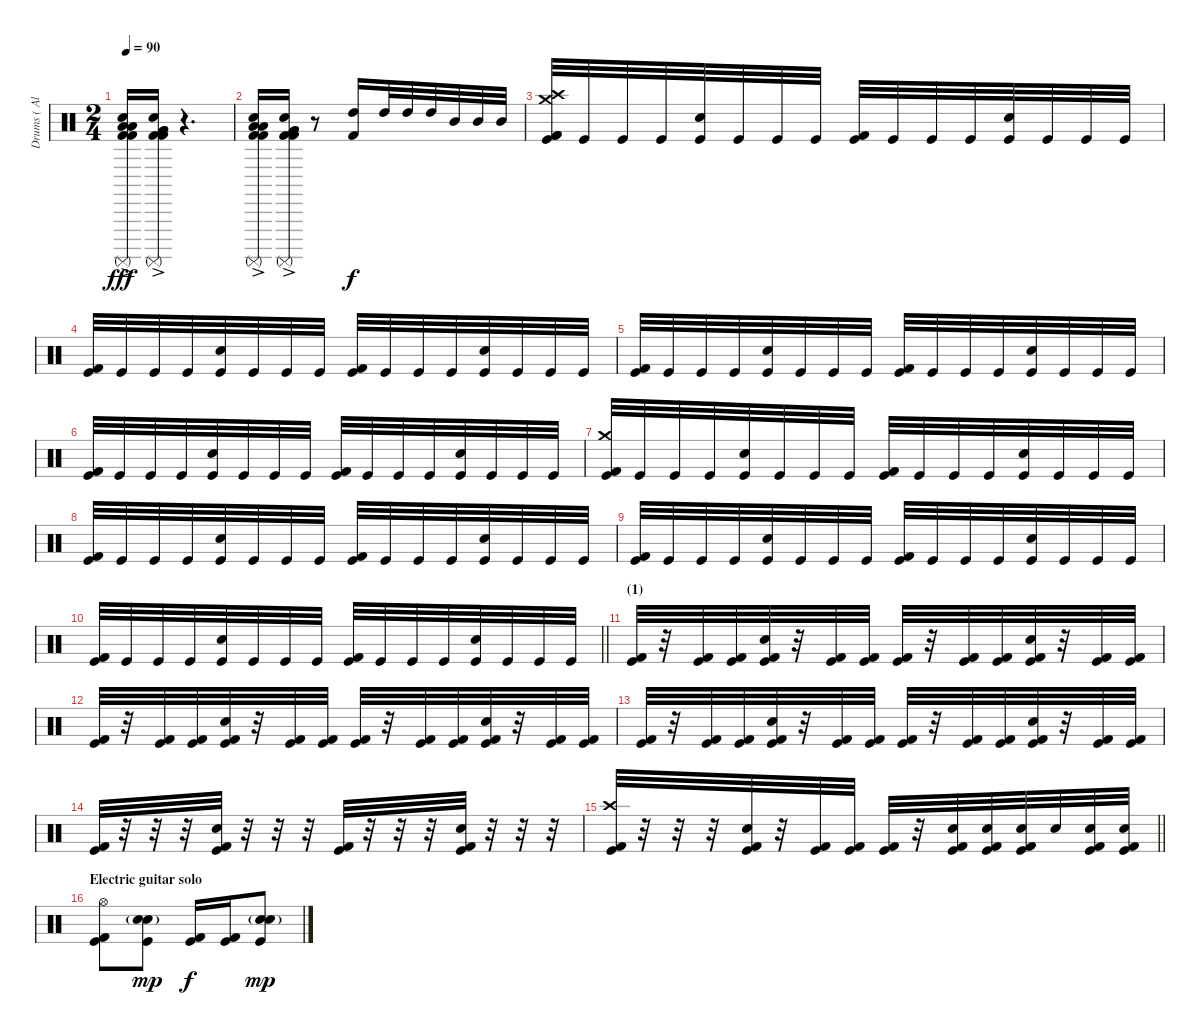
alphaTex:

\track ("Drums ( Alex Holzwarth)" "Drums ( Al") {instrument percussion}
\staff {score}
\articulation defaults
\ts (2 4)
\tempo 90
\clef neutral
\ks c
("Surdo (mute)"{ac} "Low Tom (hit)"{ac} "Low Tom (hit)"{ac} "Snare (hit) 2" "Kick (hit) 2"{ac} "Kick (hit) 2"{ac}).16{dy fff} ("Surdo (mute)"{ac} "Very Low Tom (hit)"{ac} "Very Low Tom (hit)"{ac} "Snare (hit) 2" "Kick (hit) 2"{ac} "Kick (hit) 2"{ac}).16 r.4{d} |
("Surdo (mute)"{ac} "Low Tom (hit)"{ac} "Low Tom (hit)"{ac} "Snare (hit) 2" "Kick (hit) 2"{ac} "Kick (hit) 2"{ac}).16 ("Surdo (mute)"{ac} "Very Low Tom (hit)"{ac} "Very Low Tom (hit)"{ac} "Snare (hit) 2" "Kick (hit) 2"{ac} "Kick (hit) 2"{ac}).16 r.8 ("High Tom (hit)" "Kick (hit) 2").16{dy f} "High Tom (hit)".32 "High Tom (hit)".32 "High Tom (hit)".32 "Mid Tom (hit)".32 "Mid Tom (hit)".32 "Mid Tom (hit)".32 |
("Crash high (hit)" "Crash medium (hit)" "Kick (hit) 2" "Kick (hit) 2" "Kick (hit)").32 "Kick (hit)".32 "Kick (hit)".32 "Kick (hit)".32 ("Snare (hit) 2" "Kick (hit)").32 "Kick (hit)".32 "Kick (hit)".32 "Kick (hit)".32 ("Kick (hit) 2" "Kick (hit)").32 "Kick (hit)".32 "Kick (hit)".32 "Kick (hit)".32 ("Snare (hit) 2" "Kick (hit)").32 "Kick (hit)".32 "Kick (hit)".32 "Kick (hit)".32 |
("Kick (hit) 2" "Kick (hit)").32 "Kick (hit)".32 "Kick (hit)".32 "Kick (hit)".32 ("Snare (hit) 2" "Kick (hit)").32 "Kick (hit)".32 "Kick (hit)".32 "Kick (hit)".32 ("Kick (hit) 2" "Kick (hit)").32 "Kick (hit)".32 "Kick (hit)".32 "Kick (hit)".32 ("Snare (hit) 2" "Kick (hit)").32 "Kick (hit)".32 "Kick (hit)".32 "Kick (hit)".32 |
("Kick (hit) 2" "Kick (hit)").32 "Kick (hit)".32 "Kick (hit)".32 "Kick (hit)".32 ("Snare (hit) 2" "Kick (hit)").32 "Kick (hit)".32 "Kick (hit)".32 "Kick (hit)".32 ("Kick (hit) 2" "Kick (hit)").32 "Kick (hit)".32 "Kick (hit)".32 "Kick (hit)".32 ("Snare (hit) 2" "Kick (hit)").32 "Kick (hit)".32 "Kick (hit)".32 "Kick (hit)".32 |
("Kick (hit) 2" "Kick (hit)").32 "Kick (hit)".32 "Kick (hit)".32 "Kick (hit)".32 ("Snare (hit) 2" "Kick (hit)").32 "Kick (hit)".32 "Kick (hit)".32 "Kick (hit)".32 ("Kick (hit) 2" "Kick (hit)").32 "Kick (hit)".32 "Kick (hit)".32 "Kick (hit)".32 ("Snare (hit) 2" "Kick (hit)").32 "Kick (hit)".32 "Kick (hit)".32 "Kick (hit)".32 |
("Crash medium (hit)" "Kick (hit) 2" "Kick (hit)").32 "Kick (hit)".32 "Kick (hit)".32 "Kick (hit)".32 ("Snare (hit) 2" "Kick (hit)").32 "Kick (hit)".32 "Kick (hit)".32 "Kick (hit)".32 ("Kick (hit) 2" "Kick (hit)").32 "Kick (hit)".32 "Kick (hit)".32 "Kick (hit)".32 ("Snare (hit) 2" "Kick (hit)").32 "Kick (hit)".32 "Kick (hit)".32 "Kick (hit)".32 |
("Kick (hit) 2" "Kick (hit)").32 "Kick (hit)".32 "Kick (hit)".32 "Kick (hit)".32 ("Snare (hit) 2" "Kick (hit)").32 "Kick (hit)".32 "Kick (hit)".32 "Kick (hit)".32 ("Kick (hit) 2" "Kick (hit)").32 "Kick (hit)".32 "Kick (hit)".32 "Kick (hit)".32 ("Snare (hit) 2" "Kick (hit)").32 "Kick (hit)".32 "Kick (hit)".32 "Kick (hit)".32 |
("Kick (hit) 2" "Kick (hit)").32 "Kick (hit)".32 "Kick (hit)".32 "Kick (hit)".32 ("Snare (hit) 2" "Kick (hit)").32 "Kick (hit)".32 "Kick (hit)".32 "Kick (hit)".32 ("Kick (hit) 2" "Kick (hit)").32 "Kick (hit)".32 "Kick (hit)".32 "Kick (hit)".32 ("Snare (hit) 2" "Kick (hit)").32 "Kick (hit)".32 "Kick (hit)".32 "Kick (hit)".32 |
\barLineRight lightlight
("Kick (hit) 2" "Kick (hit)").32 "Kick (hit)".32 "Kick (hit)".32 "Kick (hit)".32 ("Snare (hit) 2" "Kick (hit)").32 "Kick (hit)".32 "Kick (hit)".32 "Kick (hit)".32 ("Kick (hit) 2" "Kick (hit)").32 "Kick (hit)".32 "Kick (hit)".32 "Kick (hit)".32 ("Snare (hit) 2" "Kick (hit)").32 "Kick (hit)".32 "Kick (hit)".32 "Kick (hit)".32 |
\section ("" "(1)")
("Kick (hit) 2" "Kick (hit)").32 r.32 ("Kick (hit) 2" "Kick (hit)").32 ("Kick (hit) 2" "Kick (hit)").32 ("Snare (hit) 2" "Kick (hit) 2" "Kick (hit)").32 r.32 ("Kick (hit) 2" "Kick (hit)").32 ("Kick (hit) 2" "Kick (hit)").32 ("Kick (hit) 2" "Kick (hit)").32 r.32 ("Kick (hit) 2" "Kick (hit)").32 ("Kick (hit) 2" "Kick (hit)").32 ("Snare (hit) 2" "Kick (hit) 2" "Kick (hit)").32 r.32 ("Kick (hit) 2" "Kick (hit)").32 ("Kick (hit) 2" "Kick (hit)").32 |
("Kick (hit) 2" "Kick (hit)").32 r.32 ("Kick (hit) 2" "Kick (hit)").32 ("Kick (hit) 2" "Kick (hit)").32 ("Snare (hit) 2" "Kick (hit) 2" "Kick (hit)").32 r.32 ("Kick (hit) 2" "Kick (hit)").32 ("Kick (hit) 2" "Kick (hit)").32 ("Kick (hit) 2" "Kick (hit)").32 r.32 ("Kick (hit) 2" "Kick (hit)").32 ("Kick (hit) 2" "Kick (hit)").32 ("Snare (hit) 2" "Kick (hit) 2" "Kick (hit)").32 r.32 ("Kick (hit) 2" "Kick (hit)").32 ("Kick (hit) 2" "Kick (hit)").32 |
("Kick (hit) 2" "Kick (hit)").32 r.32 ("Kick (hit) 2" "Kick (hit)").32 ("Kick (hit) 2" "Kick (hit)").32 ("Snare (hit) 2" "Kick (hit) 2" "Kick (hit)").32 r.32 ("Kick (hit) 2" "Kick (hit)").32 ("Kick (hit) 2" "Kick (hit)").32 ("Kick (hit) 2" "Kick (hit)").32 r.32 ("Kick (hit) 2" "Kick (hit)").32 ("Kick (hit) 2" "Kick (hit)").32 ("Snare (hit) 2" "Kick (hit) 2" "Kick (hit)").32 r.32 ("Kick (hit) 2" "Kick (hit)").32 ("Kick (hit) 2" "Kick (hit)").32 |
("Kick (hit) 2" "Kick (hit)").32 r.32 r.32 r.32 ("Snare (hit) 2" "Kick (hit) 2" "Kick (hit)").32 r.32 r.32 r.32 ("Kick (hit) 2" "Kick (hit)").32 r.32 r.32 r.32 ("Snare (hit) 2" "Kick (hit) 2" "Kick (hit)").32 r.32 r.32 r.32 |
\barLineRight lightlight
("Crash high (hit)" "Kick (hit) 2" "Kick (hit)").32 r.32 r.32 r.32 ("Snare (hit) 2" "Kick (hit) 2" "Kick (hit)").32 r.32 ("Kick (hit) 2" "Kick (hit)").32 ("Kick (hit) 2" "Kick (hit)").32 ("Kick (hit) 2" "Kick (hit)").32 r.32 ("Electric Snare (hit)" "Kick (hit) 2" "Kick (hit)").32 ("Electric Snare (hit)" "Kick (hit) 2" "Kick (hit)").32 ("Electric Snare (hit)" "Kick (hit) 2" "Kick (hit)").32 "Electric Snare (hit)".32 ("Electric Snare (hit)" "Kick (hit) 2" "Kick (hit)").32 ("Electric Snare (hit)" "Kick (hit) 2" "Kick (hit)").32 |
\section ("" "Electric guitar solo")
("Hi-Hat (open)" "Kick (hit) 2" "Kick (hit)").8 ("Electric Snare (hit)"{g} "Snare (hit) 2" "Kick (hit)").8{dy mp} ("Kick (hit) 2" "Kick (hit)").16{dy f} ("Kick (hit) 2" "Kick (hit)").16 ("Electric Snare (hit)"{g} "Snare (hit) 2" "Kick (hit)").8{dy mp}
